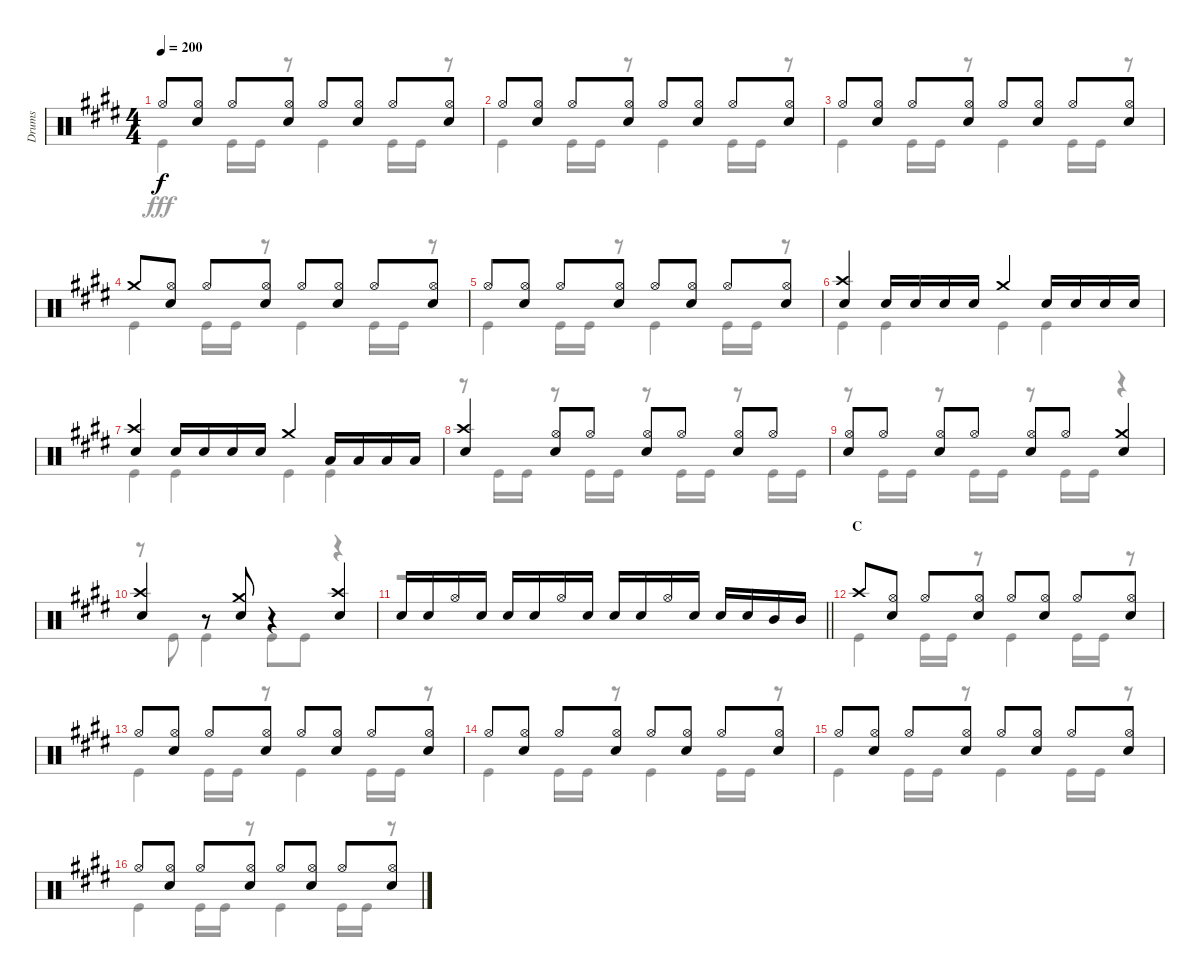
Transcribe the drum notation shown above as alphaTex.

\track ("Drums" "Drums") {instrument percussion}
\staff {score}
\articulation defaults
\voice
\ts (4 4)
\tempo 200
\clef neutral
\ks e "Hi-Hat (open)".8{dy f}
("Hi-Hat (open)" "Snare (hit) 2").8 "Hi-Hat (open)".8 ("Hi-Hat (open)" "Snare (hit) 2").8 "Hi-Hat (open)".8 ("Hi-Hat (open)" "Snare (hit) 2").8 "Hi-Hat (open)".8 ("Hi-Hat (open)" "Snare (hit) 2").8 |
"Hi-Hat (open)".8 ("Hi-Hat (open)" "Snare (hit) 2").8 "Hi-Hat (open)".8 ("Hi-Hat (open)" "Snare (hit) 2").8 "Hi-Hat (open)".8 ("Hi-Hat (open)" "Snare (hit) 2").8 "Hi-Hat (open)".8 ("Hi-Hat (open)" "Snare (hit) 2").8 |
"Hi-Hat (open)".8 ("Hi-Hat (open)" "Snare (hit) 2").8 "Hi-Hat (open)".8 ("Hi-Hat (open)" "Snare (hit) 2").8 "Hi-Hat (open)".8 ("Hi-Hat (open)" "Snare (hit) 2").8 "Hi-Hat (open)".8 ("Hi-Hat (open)" "Snare (hit) 2").8 |
"Crash medium (hit)".8 ("Hi-Hat (open)" "Snare (hit) 2").8 "Hi-Hat (open)".8 ("Hi-Hat (open)" "Snare (hit) 2").8 "Hi-Hat (open)".8 ("Hi-Hat (open)" "Snare (hit) 2").8 "Hi-Hat (open)".8 ("Hi-Hat (open)" "Snare (hit) 2").8 |
"Hi-Hat (open)".8 ("Hi-Hat (open)" "Snare (hit) 2").8 "Hi-Hat (open)".8 ("Hi-Hat (open)" "Snare (hit) 2").8 "Hi-Hat (open)".8 ("Hi-Hat (open)" "Snare (hit) 2").8 "Hi-Hat (open)".8 ("Hi-Hat (open)" "Snare (hit) 2").8 |
("Crash high (hit)" "Snare (hit) 2").4 "Snare (hit) 2".16 "Snare (hit) 2".16 "Snare (hit) 2".16 "Snare (hit) 2".16 "Crash medium (hit)".4 "Snare (hit) 2".16 "Snare (hit) 2".16 "Snare (hit) 2".16 "Snare (hit) 2".16 |
("Crash high (hit)" "Snare (hit) 2").4 "Snare (hit) 2".16 "Snare (hit) 2".16 "Snare (hit) 2".16 "Snare (hit) 2".16 "Crash medium (hit)".4 "Low Tom (hit)".16 "Low Tom (hit)".16 "Low Tom (hit)".16 "Low Tom (hit)".16 |
("Crash high (hit)" "Snare (hit) 2").4 ("Hi-Hat (open)" "Snare (hit) 2").8 "Hi-Hat (open)".8 ("Hi-Hat (open)" "Snare (hit) 2").8 "Hi-Hat (open)".8 ("Hi-Hat (open)" "Snare (hit) 2").8 "Hi-Hat (open)".8 |
("Hi-Hat (open)" "Snare (hit) 2").8 "Hi-Hat (open)".8 ("Hi-Hat (open)" "Snare (hit) 2").8 "Hi-Hat (open)".8 ("Hi-Hat (open)" "Snare (hit) 2").8 "Hi-Hat (open)".8 ("Crash medium (hit)" "Snare (hit) 2").4 |
("Crash high (hit)" "Snare (hit) 2").4 r.8 ("Crash medium (hit)" "Snare (hit) 2").8 r.4 ("Crash high (hit)" "Snare (hit) 2").4 |
\barLineRight lightlight "Snare (hit) 2".16 "Snare (hit) 2".16 "Hi-Hat (open)".16 "Snare (hit) 2".16 "Snare (hit) 2".16 "Snare (hit) 2".16 "Hi-Hat (open)".16 "Snare (hit) 2".16 "Snare (hit) 2".16 "Snare (hit) 2".16 "Hi-Hat (open)".16 "Snare (hit) 2".16 "Snare (hit) 2".16 "Snare (hit) 2".16 "Mid Tom (hit)".16 "Mid Tom (hit)".16
|
\section ("" "C")
"Crash high (hit)".8 ("Hi-Hat (open)" "Snare (hit) 2").8 "Hi-Hat (open)".8 ("Hi-Hat (open)" "Snare (hit) 2").8 "Hi-Hat (open)".8 ("Hi-Hat (open)" "Snare (hit) 2").8 "Hi-Hat (open)".8 ("Hi-Hat (open)" "Snare (hit) 2").8 |
"Hi-Hat (open)".8 ("Hi-Hat (open)" "Snare (hit) 2").8 "Hi-Hat (open)".8 ("Hi-Hat (open)" "Snare (hit) 2").8 "Hi-Hat (open)".8 ("Hi-Hat (open)" "Snare (hit) 2").8 "Hi-Hat (open)".8 ("Hi-Hat (open)" "Snare (hit) 2").8 |
"Hi-Hat (open)".8 ("Hi-Hat (open)" "Snare (hit) 2").8 "Hi-Hat (open)".8 ("Hi-Hat (open)" "Snare (hit) 2").8 "Hi-Hat (open)".8 ("Hi-Hat (open)" "Snare (hit) 2").8 "Hi-Hat (open)".8 ("Hi-Hat (open)" "Snare (hit) 2").8 |
"Hi-Hat (open)".8 ("Hi-Hat (open)" "Snare (hit) 2").8 "Hi-Hat (open)".8 ("Hi-Hat (open)" "Snare (hit) 2").8 "Hi-Hat (open)".8 ("Hi-Hat (open)" "Snare (hit) 2").8 "Hi-Hat (open)".8 ("Hi-Hat (open)" "Snare (hit) 2").8 |
"Hi-Hat (open)".8 ("Hi-Hat (open)" "Snare (hit) 2").8 "Hi-Hat (open)".8 ("Hi-Hat (open)" "Snare (hit) 2").8 "Hi-Hat (open)".8 ("Hi-Hat (open)" "Snare (hit) 2").8 "Hi-Hat (open)".8 ("Hi-Hat (open)" "Snare (hit) 2").8
\voice
\clef neutral
\ottava regular
\simile none
\ks e "Kick (hit)".4{dy fff} "Kick (hit)".16 "Kick (hit)".16
r.8 "Kick (hit)".4 "Kick (hit)".16 "Kick (hit)".16 r.8 |
"Kick (hit)".4 "Kick (hit)".16 "Kick (hit)".16 r.8 "Kick (hit)".4 "Kick (hit)".16 "Kick (hit)".16 r.8 |
"Kick (hit)".4 "Kick (hit)".16 "Kick (hit)".16 r.8 "Kick (hit)".4 "Kick (hit)".16 "Kick (hit)".16 r.8 |
"Kick (hit)".4 "Kick (hit)".16 "Kick (hit)".16 r.8 "Kick (hit)".4 "Kick (hit)".16 "Kick (hit)".16 r.8 |
"Kick (hit)".4 "Kick (hit)".16 "Kick (hit)".16 r.8 "Kick (hit)".4 "Kick (hit)".16 "Kick (hit)".16 r.8 |
"Kick (hit)".4 "Kick (hit)".4 "Kick (hit)".4 "Kick (hit)".4 |
"Kick (hit)".4 "Kick (hit)".4 "Kick (hit)".4 "Kick (hit)".4 |
r.8 "Kick (hit)".16 "Kick (hit)".16 r.8 "Kick (hit)".16 "Kick (hit)".16 r.8 "Kick (hit)".16 "Kick (hit)".16 r.8 "Kick (hit)".16 "Kick (hit)".16 |
r.8 "Kick (hit)".16 "Kick (hit)".16 r.8 "Kick (hit)".16 "Kick (hit)".16 r.8 "Kick (hit)".16 "Kick (hit)".16 r.4 |
r.8 "Kick (hit)".8 "Kick (hit)".4 "Kick (hit)".8 "Kick (hit)".8 r.4 |
\barLineRight lightlight
r.1 |
"Kick (hit)".4 "Kick (hit)".16 "Kick (hit)".16 r.8 "Kick (hit)".4 "Kick (hit)".16 "Kick (hit)".16 r.8 |
"Kick (hit)".4 "Kick (hit)".16 "Kick (hit)".16 r.8 "Kick (hit)".4 "Kick (hit)".16 "Kick (hit)".16 r.8 |
"Kick (hit)".4 "Kick (hit)".16 "Kick (hit)".16 r.8 "Kick (hit)".4 "Kick (hit)".16 "Kick (hit)".16 r.8 |
"Kick (hit)".4 "Kick (hit)".16 "Kick (hit)".16 r.8 "Kick (hit)".4 "Kick (hit)".16 "Kick (hit)".16 r.8 |
"Kick (hit)".4 "Kick (hit)".16 "Kick (hit)".16 r.8 "Kick (hit)".4 "Kick (hit)".16 "Kick (hit)".16 r.8
